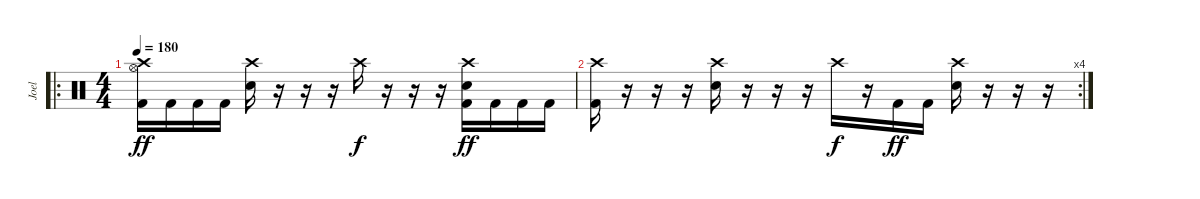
\track ("Joel" "Joel") {instrument percussion}
\staff {score}
\articulation defaults
\ro
\ts (4 4)
\tempo 180
\clef neutral
\ks c
("Crash high (hit)" "Hi-Hat (open)" "Kick (hit) 2").16{dy ff} "Kick (hit) 2".16 "Kick (hit) 2".16 "Kick (hit) 2".16 ("Crash high (hit)" "Electric Snare (hit)").16 r.16 r.16 r.16 "Crash high (hit)".16{dy f} r.16 r.16 r.16 ("Crash high (hit)" "Electric Snare (hit)" "Kick (hit) 2").16{dy ff} "Kick (hit) 2".16 "Kick (hit) 2".16 "Kick (hit) 2".16 |
\rc 4
("Crash high (hit)" "Kick (hit) 2").16 r.16 r.16 r.16 ("Crash high (hit)" "Electric Snare (hit)").16 r.16 r.16 r.16 "Crash high (hit)".16{dy f} r.16 "Kick (hit) 2".16{dy ff} "Kick (hit) 2".16 ("Crash high (hit)" "Electric Snare (hit)").16 r.16 r.16 r.16
